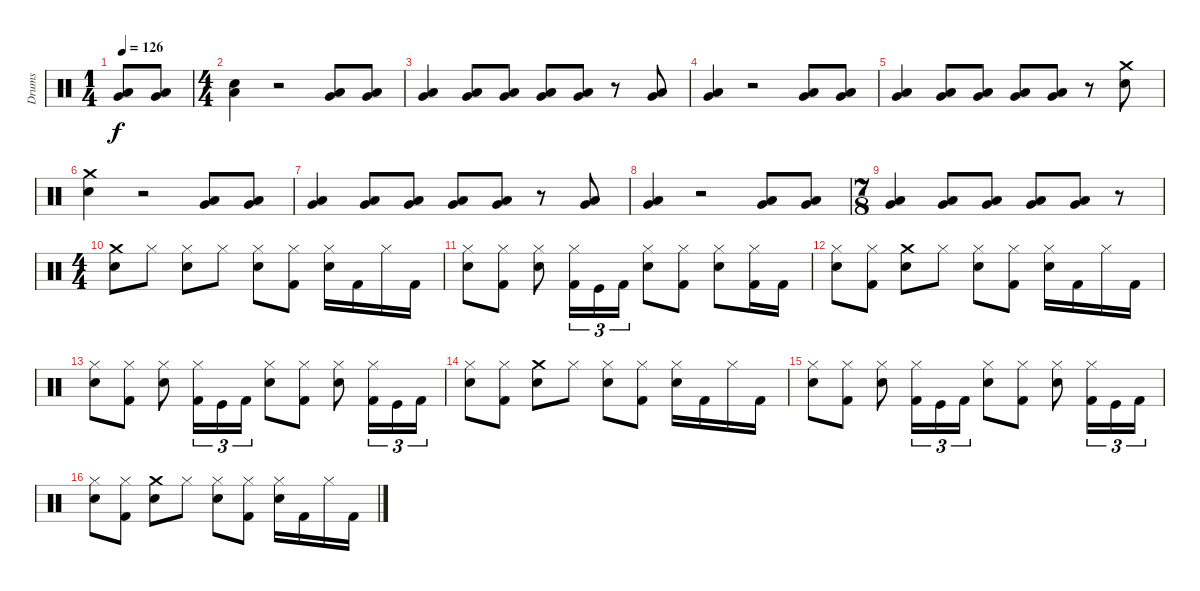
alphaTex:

\track ("Drums" "Drums") {instrument percussion}
\staff {score}
\articulation defaults
\ts (1 4)
\tempo 126
\clef neutral
\ks c
("Very Low Tom (hit)" "Low Tom (hit)").8{dy f} ("Very Low Tom (hit)" "Low Tom (hit)").8 |
\ts (4 4)
("Snare (hit) 2" "Low Tom (hit)").4 r.2 ("Very Low Tom (hit)" "Low Tom (hit)").8 ("Very Low Tom (hit)" "Low Tom (hit)").8 |
("Very Low Tom (hit)" "Low Tom (hit)").4 ("Very Low Tom (hit)" "Low Tom (hit)").8 ("Very Low Tom (hit)" "Low Tom (hit)").8 ("Very Low Tom (hit)" "Low Tom (hit)").8 ("Very Low Tom (hit)" "Low Tom (hit)").8 r.8 ("Very Low Tom (hit)" "Low Tom (hit)").8 |
("Very Low Tom (hit)" "Low Tom (hit)").4 r.2 ("Very Low Tom (hit)" "Low Tom (hit)").8 ("Very Low Tom (hit)" "Low Tom (hit)").8 |
("Very Low Tom (hit)" "Low Tom (hit)").4 ("Very Low Tom (hit)" "Low Tom (hit)").8 ("Very Low Tom (hit)" "Low Tom (hit)").8 ("Very Low Tom (hit)" "Low Tom (hit)").8 ("Very Low Tom (hit)" "Low Tom (hit)").8 r.8 ("Snare (hit) 2" "Crash medium (hit)").8 |
("Snare (hit) 2" "Crash medium (hit)").4 r.2 ("Very Low Tom (hit)" "Low Tom (hit)").8 ("Very Low Tom (hit)" "Low Tom (hit)").8 |
("Very Low Tom (hit)" "Low Tom (hit)").4 ("Very Low Tom (hit)" "Low Tom (hit)").8 ("Very Low Tom (hit)" "Low Tom (hit)").8 ("Very Low Tom (hit)" "Low Tom (hit)").8 ("Very Low Tom (hit)" "Low Tom (hit)").8 r.8 ("Very Low Tom (hit)" "Low Tom (hit)").8 |
("Very Low Tom (hit)" "Low Tom (hit)").4 r.2 ("Very Low Tom (hit)" "Low Tom (hit)").8 ("Very Low Tom (hit)" "Low Tom (hit)").8 |
\ts (7 8)
("Very Low Tom (hit)" "Low Tom (hit)").4 ("Very Low Tom (hit)" "Low Tom (hit)").8 ("Very Low Tom (hit)" "Low Tom (hit)").8 ("Very Low Tom (hit)" "Low Tom (hit)").8 ("Very Low Tom (hit)" "Low Tom (hit)").8 r.8 |
\ts (4 4)
("Snare (hit) 2" "Crash medium (hit)").8 "Hi-Hat (closed)".8 ("Snare (hit) 2" "Hi-Hat (closed)").8 "Hi-Hat (closed)".8 ("Snare (hit) 2" "Hi-Hat (closed)").8 ("Hi-Hat (closed)" "Kick (hit) 2").8 ("Snare (hit) 2" "Hi-Hat (closed)").16 "Kick (hit) 2".16 "Hi-Hat (closed)".16 "Kick (hit) 2".16 |
("Hi-Hat (closed)" "Snare (hit) 2").8 ("Hi-Hat (closed)" "Kick (hit) 2").8 ("Snare (hit) 2" "Hi-Hat (closed)").8 ("Hi-Hat (closed)" "Kick (hit) 2").16{tu (3 2)} "Kick (hit)".16{tu (3 2)} "Kick (hit) 2".16{tu (3 2)} ("Hi-Hat (closed)" "Snare (hit) 2").8 ("Hi-Hat (closed)" "Kick (hit) 2").8 ("Snare (hit) 2" "Hi-Hat (closed)").8 ("Hi-Hat (closed)" "Kick (hit) 2").16 "Kick (hit) 2".16 |
("Hi-Hat (closed)" "Snare (hit) 2").8 ("Kick (hit) 2" "Hi-Hat (closed)").8 ("Crash medium (hit)" "Snare (hit) 2").8 "Hi-Hat (closed)".8 ("Snare (hit) 2" "Hi-Hat (closed)").8 ("Hi-Hat (closed)" "Kick (hit) 2").8 ("Snare (hit) 2" "Hi-Hat (closed)").16 "Kick (hit) 2".16 "Hi-Hat (closed)".16 "Kick (hit) 2".16 |
("Hi-Hat (closed)" "Snare (hit) 2").8 ("Kick (hit) 2" "Hi-Hat (closed)").8 ("Snare (hit) 2" "Hi-Hat (closed)").8 ("Hi-Hat (closed)" "Kick (hit) 2").16{tu (3 2)} "Kick (hit)".16{tu (3 2)} "Kick (hit) 2".16{tu (3 2)} ("Snare (hit) 2" "Hi-Hat (closed)").8 ("Kick (hit) 2" "Hi-Hat (closed)").8 ("Snare (hit) 2" "Hi-Hat (closed)").8 ("Hi-Hat (closed)" "Kick (hit) 2").16{tu (3 2)} "Kick (hit)".16{tu (3 2)} "Kick (hit) 2".16{tu (3 2)} |
("Hi-Hat (closed)" "Snare (hit) 2").8 ("Kick (hit) 2" "Hi-Hat (closed)").8 ("Crash medium (hit)" "Snare (hit) 2").8 "Hi-Hat (closed)".8 ("Snare (hit) 2" "Hi-Hat (closed)").8 ("Hi-Hat (closed)" "Kick (hit) 2").8 ("Snare (hit) 2" "Hi-Hat (closed)").16 "Kick (hit) 2".16 "Hi-Hat (closed)".16 "Kick (hit) 2".16 |
("Hi-Hat (closed)" "Snare (hit) 2").8 ("Kick (hit) 2" "Hi-Hat (closed)").8 ("Snare (hit) 2" "Hi-Hat (closed)").8 ("Hi-Hat (closed)" "Kick (hit) 2").16{tu (3 2)} "Kick (hit)".16{tu (3 2)} "Kick (hit) 2".16{tu (3 2)} ("Snare (hit) 2" "Hi-Hat (closed)").8 ("Kick (hit) 2" "Hi-Hat (closed)").8 ("Snare (hit) 2" "Hi-Hat (closed)").8 ("Hi-Hat (closed)" "Kick (hit) 2").16{tu (3 2)} "Kick (hit)".16{tu (3 2)} "Kick (hit) 2".16{tu (3 2)} |
("Hi-Hat (closed)" "Snare (hit) 2").8 ("Kick (hit) 2" "Hi-Hat (closed)").8 ("Crash medium (hit)" "Snare (hit) 2").8 "Hi-Hat (closed)".8 ("Snare (hit) 2" "Hi-Hat (closed)").8 ("Hi-Hat (closed)" "Kick (hit) 2").8 ("Snare (hit) 2" "Hi-Hat (closed)").16 "Kick (hit) 2".16 "Hi-Hat (closed)".16 "Kick (hit) 2".16
